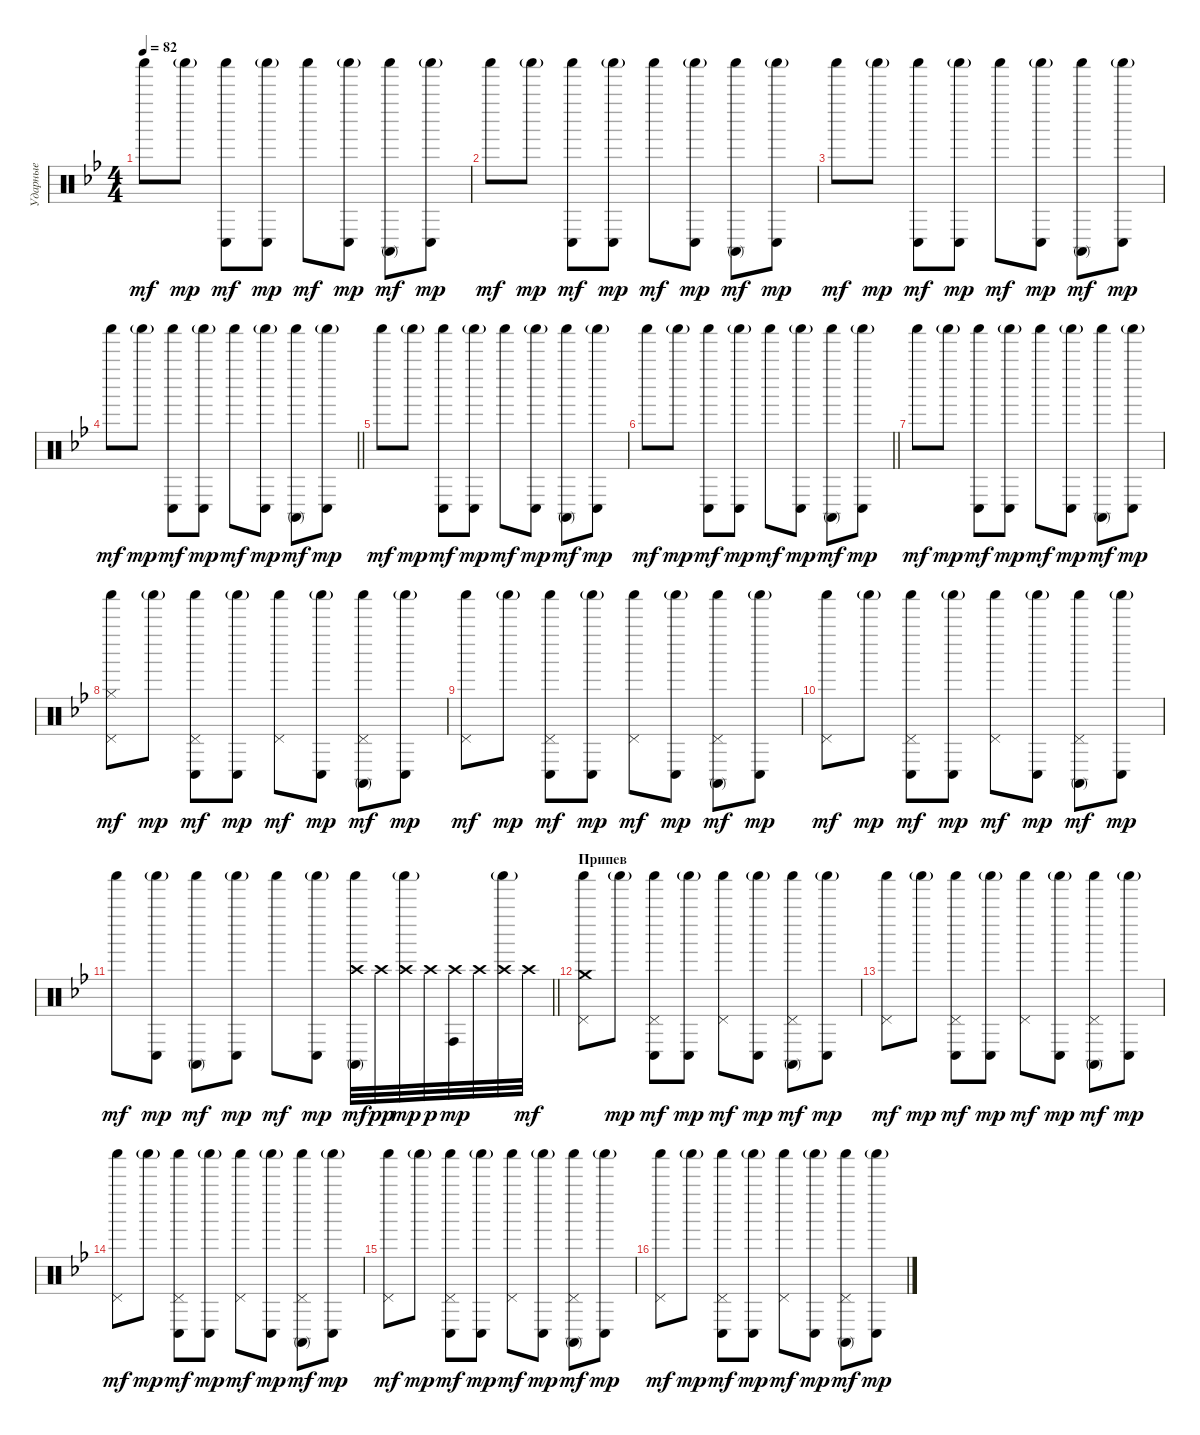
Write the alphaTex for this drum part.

\track ("Ударные" "Ударные") {instrument percussion}
\staff {score}
\articulation defaults
\ts (4 4)
\tempo 82
\clef neutral
\ks gminor "Shaker (hit)".8{dy mf} "Shaker (hit)"{g}.8{dy mp}
("Shaker (hit)" "Conga low (hit)").8{dy mf} ("Shaker (hit)"{g} "Conga low (hit)").8{dy mp} "Shaker (hit)".8{dy mf} ("Shaker (hit)"{g} "Conga low (hit)").8{dy mp} ("Shaker (hit)" "Conga high (mute)").8{dy mf} ("Shaker (hit)"{g} "Conga low (hit)").8{dy mp} |
"Shaker (hit)".8{dy mf} "Shaker (hit)"{g}.8{dy mp} ("Shaker (hit)" "Conga low (hit)").8{dy mf} ("Shaker (hit)"{g} "Conga low (hit)").8{dy mp} "Shaker (hit)".8{dy mf} ("Shaker (hit)"{g} "Conga low (hit)").8{dy mp} ("Shaker (hit)" "Conga high (mute)").8{dy mf} ("Shaker (hit)"{g} "Conga low (hit)").8{dy mp} |
"Shaker (hit)".8{dy mf} "Shaker (hit)"{g}.8{dy mp} ("Shaker (hit)" "Conga low (hit)").8{dy mf} ("Shaker (hit)"{g} "Conga low (hit)").8{dy mp} "Shaker (hit)".8{dy mf} ("Shaker (hit)"{g} "Conga low (hit)").8{dy mp} ("Shaker (hit)" "Conga high (mute)").8{dy mf} ("Shaker (hit)"{g} "Conga low (hit)").8{dy mp} |
\barLineRight lightlight "Shaker (hit)".8{dy mf} "Shaker (hit)"{g}.8{dy mp}
("Shaker (hit)" "Conga low (hit)").8{dy mf} ("Shaker (hit)"{g} "Conga low (hit)").8{dy mp} "Shaker (hit)".8{dy mf} ("Shaker (hit)"{g} "Conga low (hit)").8{dy mp} ("Shaker (hit)" "Conga high (mute)").8{dy mf} ("Shaker (hit)"{g} "Conga low (hit)").8{dy mp} |
"Shaker (hit)".8{dy mf} "Shaker (hit)"{g}.8{dy mp} ("Shaker (hit)" "Conga low (hit)").8{dy mf} ("Shaker (hit)"{g} "Conga low (hit)").8{dy mp} "Shaker (hit)".8{dy mf} ("Shaker (hit)"{g} "Conga low (hit)").8{dy mp} ("Shaker (hit)" "Conga high (mute)").8{dy mf} ("Shaker (hit)"{g} "Conga low (hit)").8{dy mp} |
\barLineRight lightlight "Shaker (hit)".8{dy mf} "Shaker (hit)"{g}.8{dy mp}
("Shaker (hit)" "Conga low (hit)").8{dy mf} ("Shaker (hit)"{g} "Conga low (hit)").8{dy mp} "Shaker (hit)".8{dy mf} ("Shaker (hit)"{g} "Conga low (hit)").8{dy mp} ("Shaker (hit)" "Conga high (mute)").8{dy mf} ("Shaker (hit)"{g} "Conga low (hit)").8{dy mp} |
"Shaker (hit)".8{dy mf} "Shaker (hit)"{g}.8{dy mp} ("Shaker (hit)" "Conga low (hit)").8{dy mf} ("Shaker (hit)"{g} "Conga low (hit)").8{dy mp} "Shaker (hit)".8{dy mf} ("Shaker (hit)"{g} "Conga low (hit)").8{dy mp} ("Shaker (hit)" "Conga high (mute)").8{dy mf} ("Shaker (hit)"{g} "Conga low (hit)").8{dy mp} |
("Shaker (hit)" "Hi-Hat (closed)" "Pedal Hi-Hat (hit)").8{dy mf} "Shaker (hit)"{g}.8{dy mp} ("Shaker (hit)" "Conga low (hit)" "Pedal Hi-Hat (hit)").8{dy mf} ("Shaker (hit)"{g} "Conga low (hit)").8{dy mp} ("Shaker (hit)" "Pedal Hi-Hat (hit)").8{dy mf} ("Shaker (hit)"{g} "Conga low (hit)").8{dy mp} ("Shaker (hit)" "Conga high (mute)" "Pedal Hi-Hat (hit)").8{dy mf} ("Shaker (hit)"{g} "Conga low (hit)").8{dy mp} |
("Shaker (hit)" "Pedal Hi-Hat (hit)").8{dy mf} "Shaker (hit)"{g}.8{dy mp} ("Shaker (hit)" "Conga low (hit)" "Pedal Hi-Hat (hit)").8{dy mf} ("Shaker (hit)"{g} "Conga low (hit)").8{dy mp} ("Shaker (hit)" "Pedal Hi-Hat (hit)").8{dy mf} ("Shaker (hit)"{g} "Conga low (hit)").8{dy mp} ("Shaker (hit)" "Conga high (mute)" "Pedal Hi-Hat (hit)").8{dy mf} ("Shaker (hit)"{g} "Conga low (hit)").8{dy mp} |
("Shaker (hit)" "Pedal Hi-Hat (hit)").8{dy mf} "Shaker (hit)"{g}.8{dy mp} ("Shaker (hit)" "Conga low (hit)" "Pedal Hi-Hat (hit)").8{dy mf} ("Shaker (hit)"{g} "Conga low (hit)").8{dy mp} ("Shaker (hit)" "Pedal Hi-Hat (hit)").8{dy mf} ("Shaker (hit)"{g} "Conga low (hit)").8{dy mp} ("Shaker (hit)" "Conga high (mute)" "Pedal Hi-Hat (hit)").8{dy mf} ("Shaker (hit)"{g} "Conga low (hit)").8{dy mp} |
\barLineRight lightlight "Shaker (hit)".8{dy mf}
("Conga low (hit)" "Shaker (hit)"{g}).8{dy mp} ("Conga high (mute)" "Shaker (hit)").8{dy mf} ("Conga low (hit)" "Shaker (hit)"{g}).8{dy mp} "Shaker (hit)".8{dy mf} ("Conga low (hit)" "Shaker (hit)"{g}).8{dy mp} ("Crash high (hit)" "Shaker (hit)" "Conga high (mute)").32{dy mf} "Crash high (hit)".32{dy pp} ("Crash high (hit)" "Shaker (hit)"{g}).32{dy mp} "Crash high (hit)".32{dy p} ("Crash high (hit)" "Conga high (hit)").32{dy mp} "Crash high (hit)".32 ("Crash high (hit)" "Shaker (hit)"{g}).32 "Crash high (hit)".32{dy mf} |
\section ("" "Припев")
("Shaker (hit)" "Crash medium (hit)" "Pedal Hi-Hat (hit)").8 "Shaker (hit)"{g}.8{dy mp} ("Shaker (hit)" "Conga low (hit)" "Pedal Hi-Hat (hit)").8{dy mf} ("Shaker (hit)"{g} "Conga low (hit)").8{dy mp} ("Shaker (hit)" "Pedal Hi-Hat (hit)").8{dy mf} ("Shaker (hit)"{g} "Conga low (hit)").8{dy mp} ("Shaker (hit)" "Conga high (mute)" "Pedal Hi-Hat (hit)").8{dy mf} ("Shaker (hit)"{g} "Conga low (hit)").8{dy mp} |
("Shaker (hit)" "Pedal Hi-Hat (hit)").8{dy mf} "Shaker (hit)"{g}.8{dy mp} ("Shaker (hit)" "Conga low (hit)" "Pedal Hi-Hat (hit)").8{dy mf} ("Shaker (hit)"{g} "Conga low (hit)").8{dy mp} ("Shaker (hit)" "Pedal Hi-Hat (hit)").8{dy mf} ("Shaker (hit)"{g} "Conga low (hit)").8{dy mp} ("Shaker (hit)" "Conga high (mute)" "Pedal Hi-Hat (hit)").8{dy mf} ("Shaker (hit)"{g} "Conga low (hit)").8{dy mp} |
("Shaker (hit)" "Pedal Hi-Hat (hit)").8{dy mf} "Shaker (hit)"{g}.8{dy mp} ("Shaker (hit)" "Conga low (hit)" "Pedal Hi-Hat (hit)").8{dy mf} ("Shaker (hit)"{g} "Conga low (hit)").8{dy mp} ("Shaker (hit)" "Pedal Hi-Hat (hit)").8{dy mf} ("Shaker (hit)"{g} "Conga low (hit)").8{dy mp} ("Shaker (hit)" "Conga high (mute)" "Pedal Hi-Hat (hit)").8{dy mf} ("Shaker (hit)"{g} "Conga low (hit)").8{dy mp} |
("Shaker (hit)" "Pedal Hi-Hat (hit)").8{dy mf} "Shaker (hit)"{g}.8{dy mp} ("Shaker (hit)" "Conga low (hit)" "Pedal Hi-Hat (hit)").8{dy mf} ("Shaker (hit)"{g} "Conga low (hit)").8{dy mp} ("Shaker (hit)" "Pedal Hi-Hat (hit)").8{dy mf} ("Shaker (hit)"{g} "Conga low (hit)").8{dy mp} ("Shaker (hit)" "Conga high (mute)" "Pedal Hi-Hat (hit)").8{dy mf} ("Shaker (hit)"{g} "Conga low (hit)").8{dy mp} |
("Shaker (hit)" "Pedal Hi-Hat (hit)").8{dy mf} "Shaker (hit)"{g}.8{dy mp} ("Shaker (hit)" "Conga low (hit)" "Pedal Hi-Hat (hit)").8{dy mf} ("Shaker (hit)"{g} "Conga low (hit)").8{dy mp} ("Shaker (hit)" "Pedal Hi-Hat (hit)").8{dy mf} ("Shaker (hit)"{g} "Conga low (hit)").8{dy mp} ("Shaker (hit)" "Conga high (mute)" "Pedal Hi-Hat (hit)").8{dy mf} ("Shaker (hit)"{g} "Conga low (hit)").8{dy mp}
